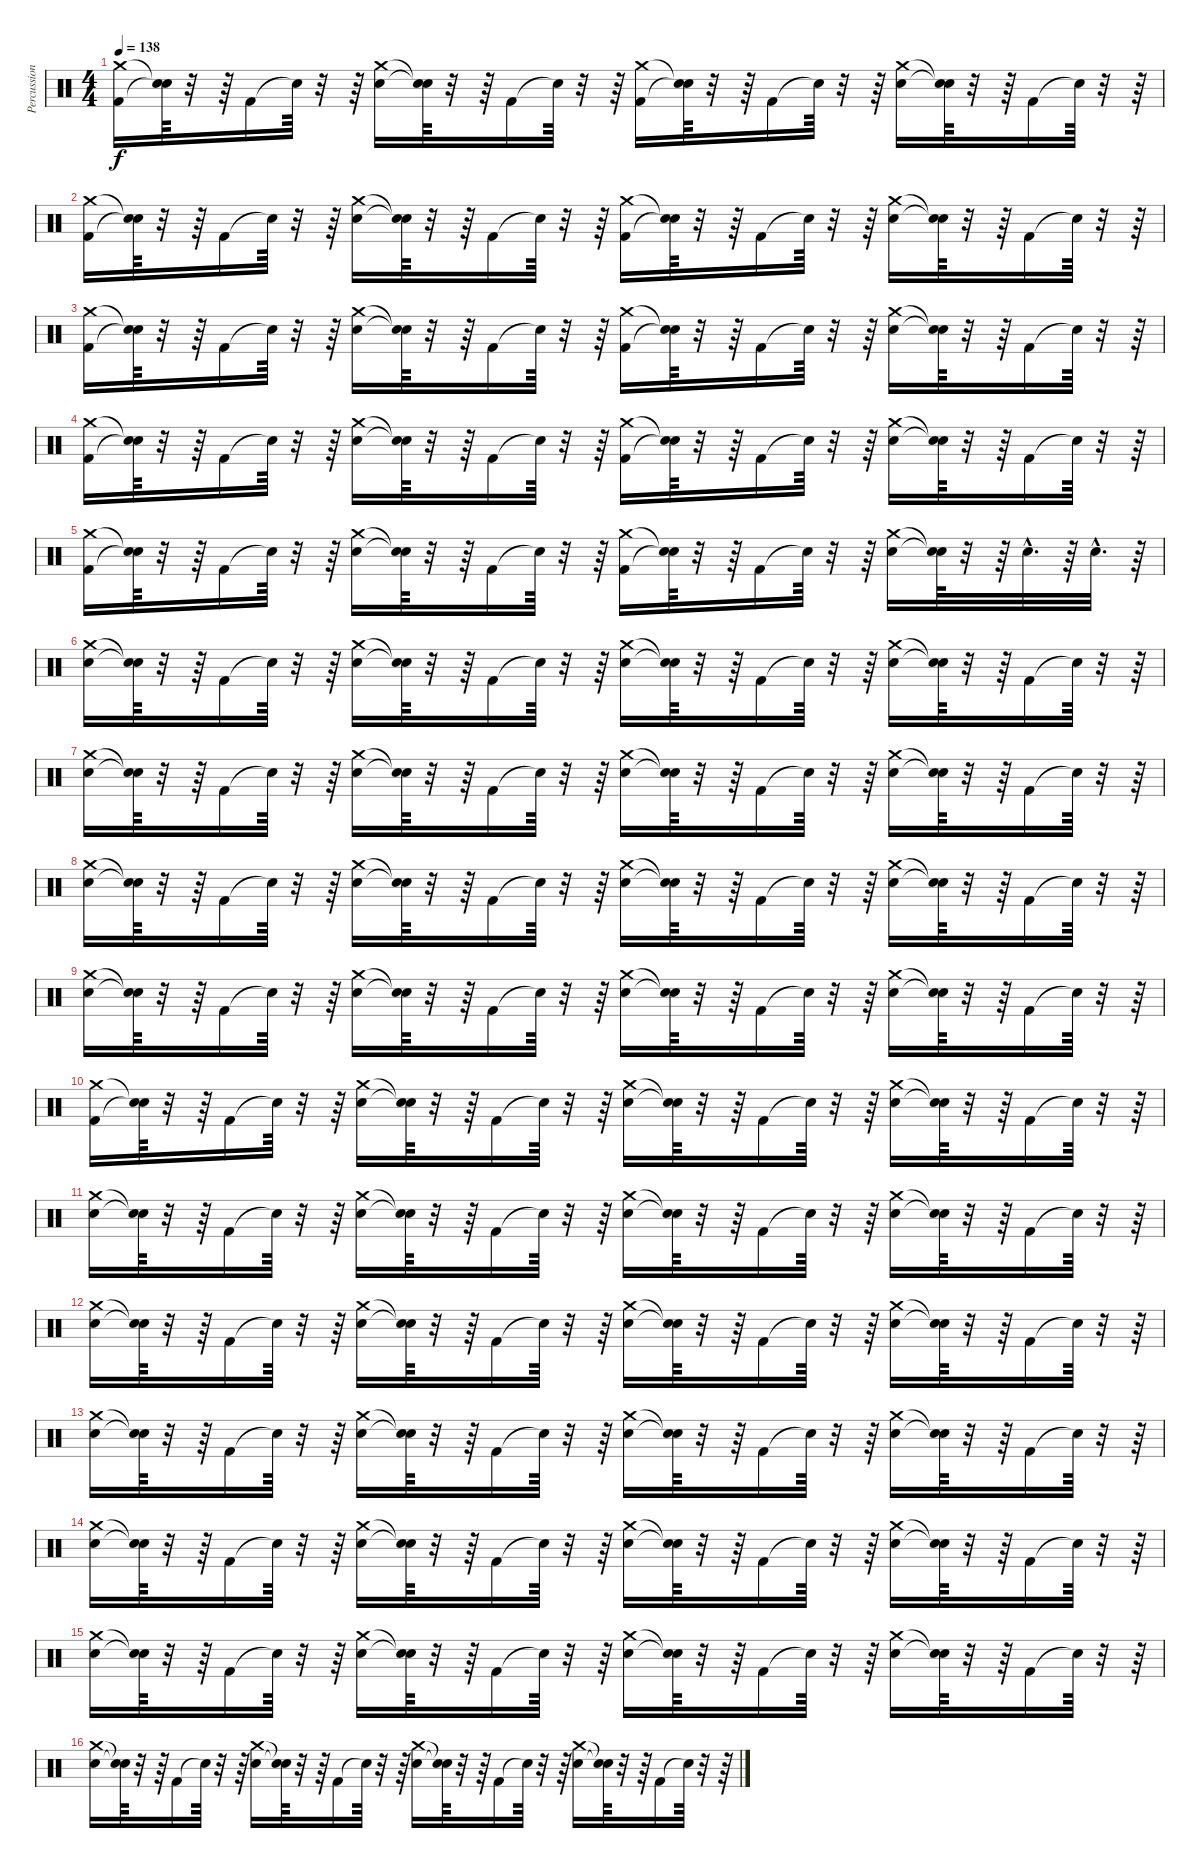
\track ("Percussions" "Percussion") {instrument percussion}
\staff {score}
\articulation defaults
\ts (4 4)
\tempo 138
\clef neutral
\ks c
("Kick (hit) 2" "Crash medium (hit)").16{dy f} ("Snare (hit)"{t} "Snare (hit)"{t}).64 r.32 r.64 "Kick (hit) 2".16 "Snare (hit)"{t}.64 r.32 r.64 ("Electric Snare (hit)" "Crash medium (hit)").16 ("Snare (hit)"{t} "Snare (hit)"{t}).64 r.32 r.64 "Kick (hit) 2".16 "Snare (hit)"{t}.64 r.32 r.64 ("Kick (hit) 2" "Crash medium (hit)").16 ("Snare (hit)"{t} "Snare (hit)"{t}).64 r.32 r.64 "Kick (hit) 2".16 "Snare (hit)"{t}.64 r.32 r.64 ("Electric Snare (hit)" "Crash medium (hit)").16 ("Snare (hit)"{t} "Snare (hit)"{t}).64 r.32 r.64 "Kick (hit) 2".16 "Snare (hit)"{t}.64 r.32 r.64 |
("Kick (hit) 2" "Crash medium (hit)").16 ("Snare (hit)"{t} "Snare (hit)"{t}).64 r.32 r.64 "Kick (hit) 2".16 "Snare (hit)"{t}.64 r.32 r.64 ("Electric Snare (hit)" "Crash medium (hit)").16 ("Snare (hit)"{t} "Snare (hit)"{t}).64 r.32 r.64 "Kick (hit) 2".16 "Snare (hit)"{t}.64 r.32 r.64 ("Kick (hit) 2" "Crash medium (hit)").16 ("Snare (hit)"{t} "Snare (hit)"{t}).64 r.32 r.64 "Kick (hit) 2".16 "Snare (hit)"{t}.64 r.32 r.64 ("Electric Snare (hit)" "Crash medium (hit)").16 ("Snare (hit)"{t} "Snare (hit)"{t}).64 r.32 r.64 "Kick (hit) 2".16 "Snare (hit)"{t}.64 r.32 r.64 |
("Kick (hit) 2" "Crash medium (hit)").16 ("Snare (hit)"{t} "Snare (hit)"{t}).64 r.32 r.64 "Kick (hit) 2".16 "Snare (hit)"{t}.64 r.32 r.64 ("Electric Snare (hit)" "Crash medium (hit)").16 ("Snare (hit)"{t} "Snare (hit)"{t}).64 r.32 r.64 "Kick (hit) 2".16 "Snare (hit)"{t}.64 r.32 r.64 ("Kick (hit) 2" "Crash medium (hit)").16 ("Snare (hit)"{t} "Snare (hit)"{t}).64 r.32 r.64 "Kick (hit) 2".16 "Snare (hit)"{t}.64 r.32 r.64 ("Electric Snare (hit)" "Crash medium (hit)").16 ("Snare (hit)"{t} "Snare (hit)"{t}).64 r.32 r.64 "Kick (hit) 2".16 "Snare (hit)"{t}.64 r.32 r.64 |
("Kick (hit) 2" "Crash medium (hit)").16 ("Snare (hit)"{t} "Snare (hit)"{t}).64 r.32 r.64 "Kick (hit) 2".16 "Snare (hit)"{t}.64 r.32 r.64 ("Electric Snare (hit)" "Crash medium (hit)").16 ("Snare (hit)"{t} "Snare (hit)"{t}).64 r.32 r.64 "Kick (hit) 2".16 "Snare (hit)"{t}.64 r.32 r.64 ("Kick (hit) 2" "Crash medium (hit)").16 ("Snare (hit)"{t} "Snare (hit)"{t}).64 r.32 r.64 "Kick (hit) 2".16 "Snare (hit)"{t}.64 r.32 r.64 ("Electric Snare (hit)" "Crash medium (hit)").16 ("Snare (hit)"{t} "Snare (hit)"{t}).64 r.32 r.64 "Kick (hit) 2".16 "Snare (hit)"{t}.64 r.32 r.64 |
("Kick (hit) 2" "Crash medium (hit)").16 ("Snare (hit)"{t} "Snare (hit)"{t}).64 r.32 r.64 "Kick (hit) 2".16 "Snare (hit)"{t}.64 r.32 r.64 ("Electric Snare (hit)" "Crash medium (hit)").16 ("Snare (hit)"{t} "Snare (hit)"{t}).64 r.32 r.64 "Kick (hit) 2".16 "Snare (hit)"{t}.64 r.32 r.64 ("Kick (hit) 2" "Crash medium (hit)").16 ("Snare (hit)"{t} "Snare (hit)"{t}).64 r.32 r.64 "Kick (hit) 2".16 "Snare (hit)"{t}.64 r.32 r.64 ("Electric Snare (hit)" "Crash medium (hit)").16 ("Snare (hit)"{t} "Snare (hit)"{t}).64 r.32 r.64 "Electric Snare (hit)"{hac}.32{d} r.64 "Electric Snare (hit)"{hac}.32{d} r.64 |
("Electric Snare (hit)" "Crash medium (hit)").16 ("Snare (hit)"{t} "Snare (hit)"{t}).64 r.32 r.64 "Kick (hit) 2".16 "Snare (hit)"{t}.64 r.32 r.64 ("Electric Snare (hit)" "Crash medium (hit)").16 ("Snare (hit)"{t} "Snare (hit)"{t}).64 r.32 r.64 "Kick (hit) 2".16 "Snare (hit)"{t}.64 r.32 r.64 ("Electric Snare (hit)" "Crash medium (hit)").16 ("Snare (hit)"{t} "Snare (hit)"{t}).64 r.32 r.64 "Kick (hit) 2".16 "Snare (hit)"{t}.64 r.32 r.64 ("Electric Snare (hit)" "Crash medium (hit)").16 ("Snare (hit)"{t} "Snare (hit)"{t}).64 r.32 r.64 "Kick (hit) 2".16 "Snare (hit)"{t}.64 r.32 r.64 |
("Electric Snare (hit)" "Crash medium (hit)").16 ("Snare (hit)"{t} "Snare (hit)"{t}).64 r.32 r.64 "Kick (hit) 2".16 "Snare (hit)"{t}.64 r.32 r.64 ("Electric Snare (hit)" "Crash medium (hit)").16 ("Snare (hit)"{t} "Snare (hit)"{t}).64 r.32 r.64 "Kick (hit) 2".16 "Snare (hit)"{t}.64 r.32 r.64 ("Electric Snare (hit)" "Crash medium (hit)").16 ("Snare (hit)"{t} "Snare (hit)"{t}).64 r.32 r.64 "Kick (hit) 2".16 "Snare (hit)"{t}.64 r.32 r.64 ("Electric Snare (hit)" "Crash medium (hit)").16 ("Snare (hit)"{t} "Snare (hit)"{t}).64 r.32 r.64 "Kick (hit) 2".16 "Snare (hit)"{t}.64 r.32 r.64 |
("Electric Snare (hit)" "Crash medium (hit)").16 ("Snare (hit)"{t} "Snare (hit)"{t}).64 r.32 r.64 "Kick (hit) 2".16 "Snare (hit)"{t}.64 r.32 r.64 ("Electric Snare (hit)" "Crash medium (hit)").16 ("Snare (hit)"{t} "Snare (hit)"{t}).64 r.32 r.64 "Kick (hit) 2".16 "Snare (hit)"{t}.64 r.32 r.64 ("Electric Snare (hit)" "Crash medium (hit)").16 ("Snare (hit)"{t} "Snare (hit)"{t}).64 r.32 r.64 "Kick (hit) 2".16 "Snare (hit)"{t}.64 r.32 r.64 ("Electric Snare (hit)" "Crash medium (hit)").16 ("Snare (hit)"{t} "Snare (hit)"{t}).64 r.32 r.64 "Kick (hit) 2".16 "Snare (hit)"{t}.64 r.32 r.64 |
("Electric Snare (hit)" "Crash medium (hit)").16 ("Snare (hit)"{t} "Snare (hit)"{t}).64 r.32 r.64 "Kick (hit) 2".16 "Snare (hit)"{t}.64 r.32 r.64 ("Electric Snare (hit)" "Crash medium (hit)").16 ("Snare (hit)"{t} "Snare (hit)"{t}).64 r.32 r.64 "Kick (hit) 2".16 "Snare (hit)"{t}.64 r.32 r.64 ("Electric Snare (hit)" "Crash medium (hit)").16 ("Snare (hit)"{t} "Snare (hit)"{t}).64 r.32 r.64 "Kick (hit) 2".16 "Snare (hit)"{t}.64 r.32 r.64 ("Electric Snare (hit)" "Crash medium (hit)").16 ("Snare (hit)"{t} "Snare (hit)"{t}).64 r.32 r.64 "Kick (hit) 2".16 "Snare (hit)"{t}.64 r.32 r.64 |
("Crash medium (hit)" "Kick (hit) 2").16 ("Snare (hit)"{t} "Snare (hit)"{t}).64 r.32 r.64 "Kick (hit) 2".16 "Snare (hit)"{t}.64 r.32 r.64 ("Electric Snare (hit)" "Crash medium (hit)").16 ("Snare (hit)"{t} "Snare (hit)"{t}).64 r.32 r.64 "Kick (hit) 2".16 "Snare (hit)"{t}.64 r.32 r.64 ("Electric Snare (hit)" "Crash medium (hit)").16 ("Snare (hit)"{t} "Snare (hit)"{t}).64 r.32 r.64 "Kick (hit) 2".16 "Snare (hit)"{t}.64 r.32 r.64 ("Electric Snare (hit)" "Crash medium (hit)").16 ("Snare (hit)"{t} "Snare (hit)"{t}).64 r.32 r.64 "Kick (hit) 2".16 "Snare (hit)"{t}.64 r.32 r.64 |
("Electric Snare (hit)" "Crash medium (hit)").16 ("Snare (hit)"{t} "Snare (hit)"{t}).64 r.32 r.64 "Kick (hit) 2".16 "Snare (hit)"{t}.64 r.32 r.64 ("Electric Snare (hit)" "Crash medium (hit)").16 ("Snare (hit)"{t} "Snare (hit)"{t}).64 r.32 r.64 "Kick (hit) 2".16 "Snare (hit)"{t}.64 r.32 r.64 ("Electric Snare (hit)" "Crash medium (hit)").16 ("Snare (hit)"{t} "Snare (hit)"{t}).64 r.32 r.64 "Kick (hit) 2".16 "Snare (hit)"{t}.64 r.32 r.64 ("Electric Snare (hit)" "Crash medium (hit)").16 ("Snare (hit)"{t} "Snare (hit)"{t}).64 r.32 r.64 "Kick (hit) 2".16 "Snare (hit)"{t}.64 r.32 r.64 |
("Electric Snare (hit)" "Crash medium (hit)").16 ("Snare (hit)"{t} "Snare (hit)"{t}).64 r.32 r.64 "Kick (hit) 2".16 "Snare (hit)"{t}.64 r.32 r.64 ("Electric Snare (hit)" "Crash medium (hit)").16 ("Snare (hit)"{t} "Snare (hit)"{t}).64 r.32 r.64 "Kick (hit) 2".16 "Snare (hit)"{t}.64 r.32 r.64 ("Electric Snare (hit)" "Crash medium (hit)").16 ("Snare (hit)"{t} "Snare (hit)"{t}).64 r.32 r.64 "Kick (hit) 2".16 "Snare (hit)"{t}.64 r.32 r.64 ("Electric Snare (hit)" "Crash medium (hit)").16 ("Snare (hit)"{t} "Snare (hit)"{t}).64 r.32 r.64 "Kick (hit) 2".16 "Snare (hit)"{t}.64 r.32 r.64 |
("Electric Snare (hit)" "Crash medium (hit)").16 ("Snare (hit)"{t} "Snare (hit)"{t}).64 r.32 r.64 "Kick (hit) 2".16 "Snare (hit)"{t}.64 r.32 r.64 ("Electric Snare (hit)" "Crash medium (hit)").16 ("Snare (hit)"{t} "Snare (hit)"{t}).64 r.32 r.64 "Kick (hit) 2".16 "Snare (hit)"{t}.64 r.32 r.64 ("Electric Snare (hit)" "Crash medium (hit)").16 ("Snare (hit)"{t} "Snare (hit)"{t}).64 r.32 r.64 "Kick (hit) 2".16 "Snare (hit)"{t}.64 r.32 r.64 ("Electric Snare (hit)" "Crash medium (hit)").16 ("Snare (hit)"{t} "Snare (hit)"{t}).64 r.32 r.64 "Kick (hit) 2".16 "Snare (hit)"{t}.64 r.32 r.64 |
("Electric Snare (hit)" "Crash medium (hit)").16 ("Snare (hit)"{t} "Snare (hit)"{t}).64 r.32 r.64 "Kick (hit) 2".16 "Snare (hit)"{t}.64 r.32 r.64 ("Electric Snare (hit)" "Crash medium (hit)").16 ("Snare (hit)"{t} "Snare (hit)"{t}).64 r.32 r.64 "Kick (hit) 2".16 "Snare (hit)"{t}.64 r.32 r.64 ("Electric Snare (hit)" "Crash medium (hit)").16 ("Snare (hit)"{t} "Snare (hit)"{t}).64 r.32 r.64 "Kick (hit) 2".16 "Snare (hit)"{t}.64 r.32 r.64 ("Electric Snare (hit)" "Crash medium (hit)").16 ("Snare (hit)"{t} "Snare (hit)"{t}).64 r.32 r.64 "Kick (hit) 2".16 "Snare (hit)"{t}.64 r.32 r.64 |
("Electric Snare (hit)" "Crash medium (hit)").16 ("Snare (hit)"{t} "Snare (hit)"{t}).64 r.32 r.64 "Kick (hit) 2".16 "Snare (hit)"{t}.64 r.32 r.64 ("Electric Snare (hit)" "Crash medium (hit)").16 ("Snare (hit)"{t} "Snare (hit)"{t}).64 r.32 r.64 "Kick (hit) 2".16 "Snare (hit)"{t}.64 r.32 r.64 ("Electric Snare (hit)" "Crash medium (hit)").16 ("Snare (hit)"{t} "Snare (hit)"{t}).64 r.32 r.64 "Kick (hit) 2".16 "Snare (hit)"{t}.64 r.32 r.64 ("Electric Snare (hit)" "Crash medium (hit)").16 ("Snare (hit)"{t} "Snare (hit)"{t}).64 r.32 r.64 "Kick (hit) 2".16 "Snare (hit)"{t}.64 r.32 r.64 |
("Electric Snare (hit)" "Crash medium (hit)").16 ("Snare (hit)"{t} "Snare (hit)"{t}).64 r.32 r.64 "Kick (hit) 2".16 "Snare (hit)"{t}.64 r.32 r.64 ("Electric Snare (hit)" "Crash medium (hit)").16 ("Snare (hit)"{t} "Snare (hit)"{t}).64 r.32 r.64 "Kick (hit) 2".16 "Snare (hit)"{t}.64 r.32 r.64 ("Electric Snare (hit)" "Crash medium (hit)").16 ("Snare (hit)"{t} "Snare (hit)"{t}).64 r.32 r.64 "Kick (hit) 2".16 "Snare (hit)"{t}.64 r.32 r.64 ("Electric Snare (hit)" "Crash medium (hit)").16 ("Snare (hit)"{t} "Snare (hit)"{t}).64 r.32 r.64 "Kick (hit) 2".16 "Snare (hit)"{t}.64 r.32 r.64
